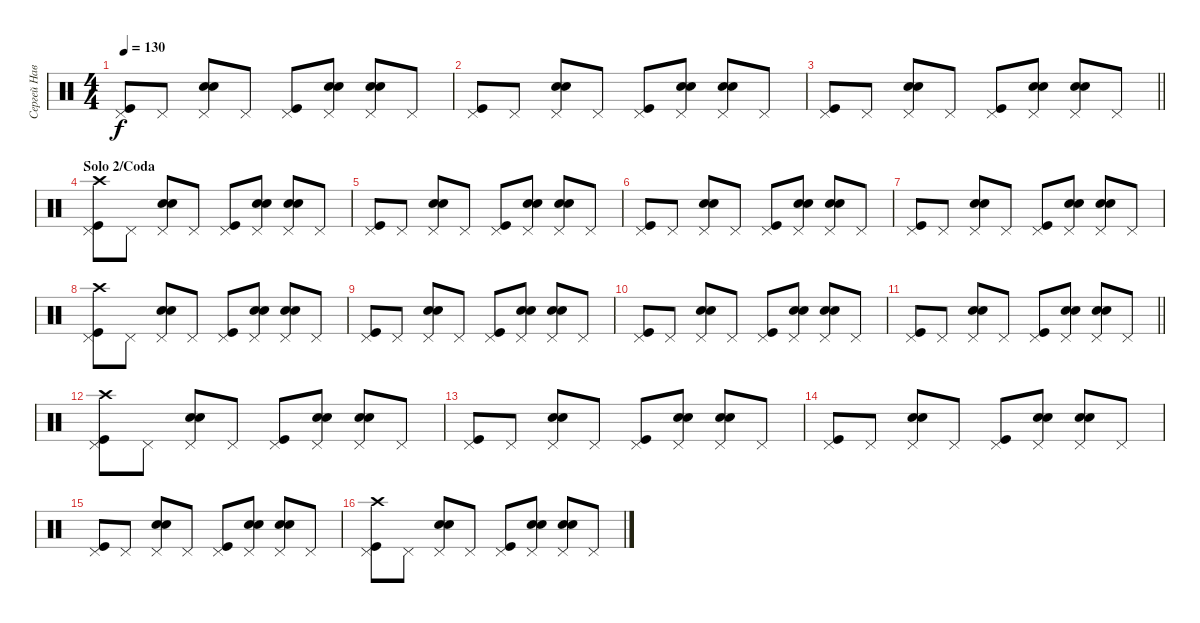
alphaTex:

\track ("Сергей Наветный" "Сергей Нав") {instrument percussion}
\staff {score}
\articulation defaults
\ts (4 4)
\tempo 130
\clef neutral
\ks c
("Kick (hit)" "Pedal Hi-Hat (hit)").8{dy f} "Pedal Hi-Hat (hit)".8 ("Hand Clap (hit)" "Snare (hit) 2" "Pedal Hi-Hat (hit)").8 "Pedal Hi-Hat (hit)".8 ("Kick (hit)" "Pedal Hi-Hat (hit)").8 ("Hand Clap (hit)" "Snare (hit) 2" "Pedal Hi-Hat (hit)").8 ("Hand Clap (hit)" "Snare (hit) 2" "Pedal Hi-Hat (hit)").8 "Pedal Hi-Hat (hit)".8 |
("Kick (hit)" "Pedal Hi-Hat (hit)").8 "Pedal Hi-Hat (hit)".8 ("Hand Clap (hit)" "Snare (hit) 2" "Pedal Hi-Hat (hit)").8 "Pedal Hi-Hat (hit)".8 ("Kick (hit)" "Pedal Hi-Hat (hit)").8 ("Hand Clap (hit)" "Snare (hit) 2" "Pedal Hi-Hat (hit)").8 ("Hand Clap (hit)" "Snare (hit) 2" "Pedal Hi-Hat (hit)").8 "Pedal Hi-Hat (hit)".8 |
\barLineRight lightlight
("Kick (hit)" "Pedal Hi-Hat (hit)").8 "Pedal Hi-Hat (hit)".8 ("Hand Clap (hit)" "Snare (hit) 2" "Pedal Hi-Hat (hit)").8 "Pedal Hi-Hat (hit)".8 ("Kick (hit)" "Pedal Hi-Hat (hit)").8 ("Hand Clap (hit)" "Snare (hit) 2" "Pedal Hi-Hat (hit)").8 ("Hand Clap (hit)" "Snare (hit) 2" "Pedal Hi-Hat (hit)").8 "Pedal Hi-Hat (hit)".8 |
\section ("" "Solo 2/Coda")
("Crash high (hit)" "Kick (hit)" "Pedal Hi-Hat (hit)").8 "Pedal Hi-Hat (hit)".8 ("Hand Clap (hit)" "Snare (hit) 2" "Pedal Hi-Hat (hit)").8 "Pedal Hi-Hat (hit)".8 ("Kick (hit)" "Pedal Hi-Hat (hit)").8 ("Hand Clap (hit)" "Snare (hit) 2" "Pedal Hi-Hat (hit)").8 ("Hand Clap (hit)" "Snare (hit) 2" "Pedal Hi-Hat (hit)").8 "Pedal Hi-Hat (hit)".8 |
("Kick (hit)" "Pedal Hi-Hat (hit)").8 "Pedal Hi-Hat (hit)".8 ("Hand Clap (hit)" "Snare (hit) 2" "Pedal Hi-Hat (hit)").8 "Pedal Hi-Hat (hit)".8 ("Kick (hit)" "Pedal Hi-Hat (hit)").8 ("Hand Clap (hit)" "Snare (hit) 2" "Pedal Hi-Hat (hit)").8 ("Hand Clap (hit)" "Snare (hit) 2" "Pedal Hi-Hat (hit)").8 "Pedal Hi-Hat (hit)".8 |
("Kick (hit)" "Pedal Hi-Hat (hit)").8 "Pedal Hi-Hat (hit)".8 ("Hand Clap (hit)" "Snare (hit) 2" "Pedal Hi-Hat (hit)").8 "Pedal Hi-Hat (hit)".8 ("Kick (hit)" "Pedal Hi-Hat (hit)").8 ("Hand Clap (hit)" "Snare (hit) 2" "Pedal Hi-Hat (hit)").8 ("Hand Clap (hit)" "Snare (hit) 2" "Pedal Hi-Hat (hit)").8 "Pedal Hi-Hat (hit)".8 |
("Kick (hit)" "Pedal Hi-Hat (hit)").8 "Pedal Hi-Hat (hit)".8 ("Hand Clap (hit)" "Snare (hit) 2" "Pedal Hi-Hat (hit)").8 "Pedal Hi-Hat (hit)".8 ("Kick (hit)" "Pedal Hi-Hat (hit)").8 ("Hand Clap (hit)" "Snare (hit) 2" "Pedal Hi-Hat (hit)").8 ("Hand Clap (hit)" "Snare (hit) 2" "Pedal Hi-Hat (hit)").8 "Pedal Hi-Hat (hit)".8 |
("Crash high (hit)" "Kick (hit)" "Pedal Hi-Hat (hit)").8 "Pedal Hi-Hat (hit)".8 ("Hand Clap (hit)" "Snare (hit) 2" "Pedal Hi-Hat (hit)").8 "Pedal Hi-Hat (hit)".8 ("Kick (hit)" "Pedal Hi-Hat (hit)").8 ("Hand Clap (hit)" "Snare (hit) 2" "Pedal Hi-Hat (hit)").8 ("Hand Clap (hit)" "Snare (hit) 2" "Pedal Hi-Hat (hit)").8 "Pedal Hi-Hat (hit)".8 |
("Kick (hit)" "Pedal Hi-Hat (hit)").8 "Pedal Hi-Hat (hit)".8 ("Hand Clap (hit)" "Snare (hit) 2" "Pedal Hi-Hat (hit)").8 "Pedal Hi-Hat (hit)".8 ("Kick (hit)" "Pedal Hi-Hat (hit)").8 ("Hand Clap (hit)" "Snare (hit) 2" "Pedal Hi-Hat (hit)").8 ("Hand Clap (hit)" "Snare (hit) 2" "Pedal Hi-Hat (hit)").8 "Pedal Hi-Hat (hit)".8 |
("Kick (hit)" "Pedal Hi-Hat (hit)").8 "Pedal Hi-Hat (hit)".8 ("Hand Clap (hit)" "Snare (hit) 2" "Pedal Hi-Hat (hit)").8 "Pedal Hi-Hat (hit)".8 ("Kick (hit)" "Pedal Hi-Hat (hit)").8 ("Hand Clap (hit)" "Snare (hit) 2" "Pedal Hi-Hat (hit)").8 ("Hand Clap (hit)" "Snare (hit) 2" "Pedal Hi-Hat (hit)").8 "Pedal Hi-Hat (hit)".8 |
\barLineRight lightlight
("Kick (hit)" "Pedal Hi-Hat (hit)").8 "Pedal Hi-Hat (hit)".8 ("Hand Clap (hit)" "Snare (hit) 2" "Pedal Hi-Hat (hit)").8 "Pedal Hi-Hat (hit)".8 ("Kick (hit)" "Pedal Hi-Hat (hit)").8 ("Hand Clap (hit)" "Snare (hit) 2" "Pedal Hi-Hat (hit)").8 ("Hand Clap (hit)" "Snare (hit) 2" "Pedal Hi-Hat (hit)").8 "Pedal Hi-Hat (hit)".8 |
("Crash high (hit)" "Kick (hit)" "Pedal Hi-Hat (hit)").8 "Pedal Hi-Hat (hit)".8 ("Hand Clap (hit)" "Snare (hit) 2" "Pedal Hi-Hat (hit)").8 "Pedal Hi-Hat (hit)".8 ("Kick (hit)" "Pedal Hi-Hat (hit)").8 ("Hand Clap (hit)" "Snare (hit) 2" "Pedal Hi-Hat (hit)").8 ("Hand Clap (hit)" "Snare (hit) 2" "Pedal Hi-Hat (hit)").8 "Pedal Hi-Hat (hit)".8 |
("Kick (hit)" "Pedal Hi-Hat (hit)").8 "Pedal Hi-Hat (hit)".8 ("Hand Clap (hit)" "Snare (hit) 2" "Pedal Hi-Hat (hit)").8 "Pedal Hi-Hat (hit)".8 ("Kick (hit)" "Pedal Hi-Hat (hit)").8 ("Hand Clap (hit)" "Snare (hit) 2" "Pedal Hi-Hat (hit)").8 ("Hand Clap (hit)" "Snare (hit) 2" "Pedal Hi-Hat (hit)").8 "Pedal Hi-Hat (hit)".8 |
("Kick (hit)" "Pedal Hi-Hat (hit)").8 "Pedal Hi-Hat (hit)".8 ("Hand Clap (hit)" "Snare (hit) 2" "Pedal Hi-Hat (hit)").8 "Pedal Hi-Hat (hit)".8 ("Kick (hit)" "Pedal Hi-Hat (hit)").8 ("Hand Clap (hit)" "Snare (hit) 2" "Pedal Hi-Hat (hit)").8 ("Hand Clap (hit)" "Snare (hit) 2" "Pedal Hi-Hat (hit)").8 "Pedal Hi-Hat (hit)".8 |
("Kick (hit)" "Pedal Hi-Hat (hit)").8 "Pedal Hi-Hat (hit)".8 ("Hand Clap (hit)" "Snare (hit) 2" "Pedal Hi-Hat (hit)").8 "Pedal Hi-Hat (hit)".8 ("Kick (hit)" "Pedal Hi-Hat (hit)").8 ("Hand Clap (hit)" "Snare (hit) 2" "Pedal Hi-Hat (hit)").8 ("Hand Clap (hit)" "Snare (hit) 2" "Pedal Hi-Hat (hit)").8 "Pedal Hi-Hat (hit)".8 |
("Crash high (hit)" "Kick (hit)" "Pedal Hi-Hat (hit)").8 "Pedal Hi-Hat (hit)".8 ("Hand Clap (hit)" "Snare (hit) 2" "Pedal Hi-Hat (hit)").8 "Pedal Hi-Hat (hit)".8 ("Kick (hit)" "Pedal Hi-Hat (hit)").8 ("Hand Clap (hit)" "Snare (hit) 2" "Pedal Hi-Hat (hit)").8 ("Hand Clap (hit)" "Snare (hit) 2" "Pedal Hi-Hat (hit)").8 "Pedal Hi-Hat (hit)".8
